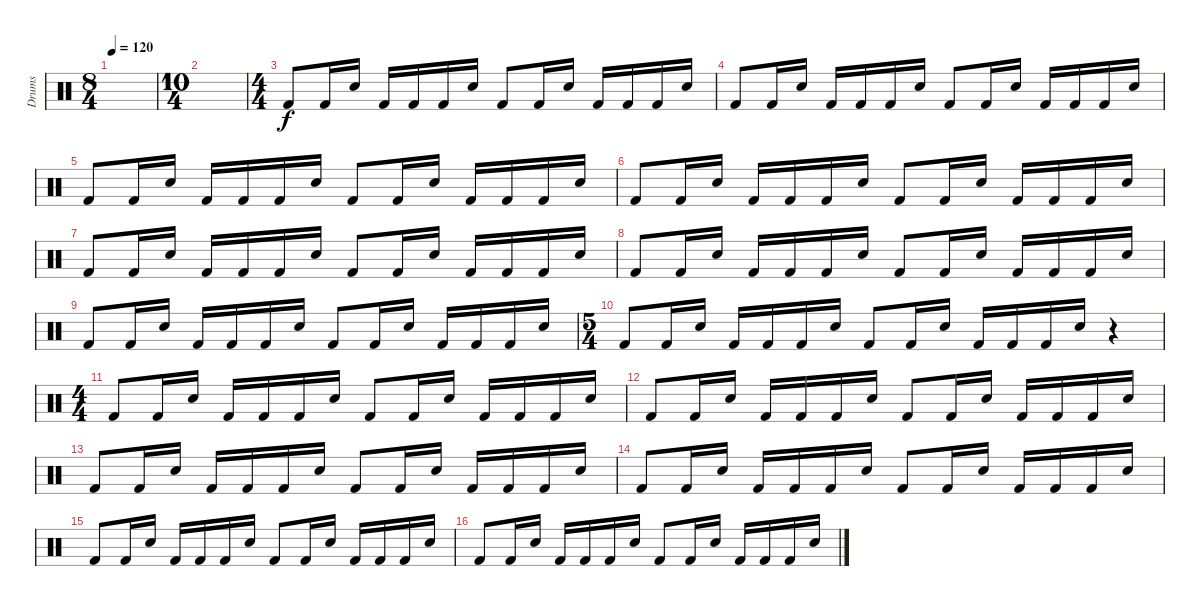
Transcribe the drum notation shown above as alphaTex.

\track ("Drums" "Drums") {instrument percussion}
\staff {score}
\articulation defaults
\ts (8 4)
\tempo 120
\clef neutral
\ks c
|
\ts (10 4)
|
\ts (4 4)
"Kick (hit) 2".8 "Kick (hit) 2".16 "Electric Snare (hit)".16 "Kick (hit) 2".16 "Kick (hit) 2".16 "Kick (hit) 2".16 "Electric Snare (hit)".16 "Kick (hit) 2".8 "Kick (hit) 2".16 "Electric Snare (hit)".16 "Kick (hit) 2".16 "Kick (hit) 2".16 "Kick (hit) 2".16 "Electric Snare (hit)".16 |
"Kick (hit) 2".8 "Kick (hit) 2".16 "Electric Snare (hit)".16 "Kick (hit) 2".16 "Kick (hit) 2".16 "Kick (hit) 2".16 "Electric Snare (hit)".16 "Kick (hit) 2".8 "Kick (hit) 2".16 "Electric Snare (hit)".16 "Kick (hit) 2".16 "Kick (hit) 2".16 "Kick (hit) 2".16 "Electric Snare (hit)".16 |
"Kick (hit) 2".8 "Kick (hit) 2".16 "Electric Snare (hit)".16 "Kick (hit) 2".16 "Kick (hit) 2".16 "Kick (hit) 2".16 "Electric Snare (hit)".16 "Kick (hit) 2".8 "Kick (hit) 2".16 "Electric Snare (hit)".16 "Kick (hit) 2".16 "Kick (hit) 2".16 "Kick (hit) 2".16 "Electric Snare (hit)".16 |
"Kick (hit) 2".8 "Kick (hit) 2".16 "Electric Snare (hit)".16 "Kick (hit) 2".16 "Kick (hit) 2".16 "Kick (hit) 2".16 "Electric Snare (hit)".16 "Kick (hit) 2".8 "Kick (hit) 2".16 "Electric Snare (hit)".16 "Kick (hit) 2".16 "Kick (hit) 2".16 "Kick (hit) 2".16 "Electric Snare (hit)".16 |
"Kick (hit) 2".8 "Kick (hit) 2".16 "Electric Snare (hit)".16 "Kick (hit) 2".16 "Kick (hit) 2".16 "Kick (hit) 2".16 "Electric Snare (hit)".16 "Kick (hit) 2".8 "Kick (hit) 2".16 "Electric Snare (hit)".16 "Kick (hit) 2".16 "Kick (hit) 2".16 "Kick (hit) 2".16 "Electric Snare (hit)".16 |
"Kick (hit) 2".8 "Kick (hit) 2".16 "Electric Snare (hit)".16 "Kick (hit) 2".16 "Kick (hit) 2".16 "Kick (hit) 2".16 "Electric Snare (hit)".16 "Kick (hit) 2".8 "Kick (hit) 2".16 "Electric Snare (hit)".16 "Kick (hit) 2".16 "Kick (hit) 2".16 "Kick (hit) 2".16 "Electric Snare (hit)".16 |
"Kick (hit) 2".8 "Kick (hit) 2".16 "Electric Snare (hit)".16 "Kick (hit) 2".16 "Kick (hit) 2".16 "Kick (hit) 2".16 "Electric Snare (hit)".16 "Kick (hit) 2".8 "Kick (hit) 2".16 "Electric Snare (hit)".16 "Kick (hit) 2".16 "Kick (hit) 2".16 "Kick (hit) 2".16 "Electric Snare (hit)".16 |
\ts (5 4)
"Kick (hit) 2".8 "Kick (hit) 2".16 "Electric Snare (hit)".16 "Kick (hit) 2".16 "Kick (hit) 2".16 "Kick (hit) 2".16 "Electric Snare (hit)".16 "Kick (hit) 2".8 "Kick (hit) 2".16 "Electric Snare (hit)".16 "Kick (hit) 2".16 "Kick (hit) 2".16 "Kick (hit) 2".16 "Electric Snare (hit)".16 r.4 |
\ts (4 4)
"Kick (hit) 2".8 "Kick (hit) 2".16 "Electric Snare (hit)".16 "Kick (hit) 2".16 "Kick (hit) 2".16 "Kick (hit) 2".16 "Electric Snare (hit)".16 "Kick (hit) 2".8 "Kick (hit) 2".16 "Electric Snare (hit)".16 "Kick (hit) 2".16 "Kick (hit) 2".16 "Kick (hit) 2".16 "Electric Snare (hit)".16 |
"Kick (hit) 2".8 "Kick (hit) 2".16 "Electric Snare (hit)".16 "Kick (hit) 2".16 "Kick (hit) 2".16 "Kick (hit) 2".16 "Electric Snare (hit)".16 "Kick (hit) 2".8 "Kick (hit) 2".16 "Electric Snare (hit)".16 "Kick (hit) 2".16 "Kick (hit) 2".16 "Kick (hit) 2".16 "Electric Snare (hit)".16 |
"Kick (hit) 2".8 "Kick (hit) 2".16 "Electric Snare (hit)".16 "Kick (hit) 2".16 "Kick (hit) 2".16 "Kick (hit) 2".16 "Electric Snare (hit)".16 "Kick (hit) 2".8 "Kick (hit) 2".16 "Electric Snare (hit)".16 "Kick (hit) 2".16 "Kick (hit) 2".16 "Kick (hit) 2".16 "Electric Snare (hit)".16 |
"Kick (hit) 2".8 "Kick (hit) 2".16 "Electric Snare (hit)".16 "Kick (hit) 2".16 "Kick (hit) 2".16 "Kick (hit) 2".16 "Electric Snare (hit)".16 "Kick (hit) 2".8 "Kick (hit) 2".16 "Electric Snare (hit)".16 "Kick (hit) 2".16 "Kick (hit) 2".16 "Kick (hit) 2".16 "Electric Snare (hit)".16 |
"Kick (hit) 2".8 "Kick (hit) 2".16 "Electric Snare (hit)".16 "Kick (hit) 2".16 "Kick (hit) 2".16 "Kick (hit) 2".16 "Electric Snare (hit)".16 "Kick (hit) 2".8 "Kick (hit) 2".16 "Electric Snare (hit)".16 "Kick (hit) 2".16 "Kick (hit) 2".16 "Kick (hit) 2".16 "Electric Snare (hit)".16 |
"Kick (hit) 2".8 "Kick (hit) 2".16 "Electric Snare (hit)".16 "Kick (hit) 2".16 "Kick (hit) 2".16 "Kick (hit) 2".16 "Electric Snare (hit)".16 "Kick (hit) 2".8 "Kick (hit) 2".16 "Electric Snare (hit)".16 "Kick (hit) 2".16 "Kick (hit) 2".16 "Kick (hit) 2".16 "Electric Snare (hit)".16
